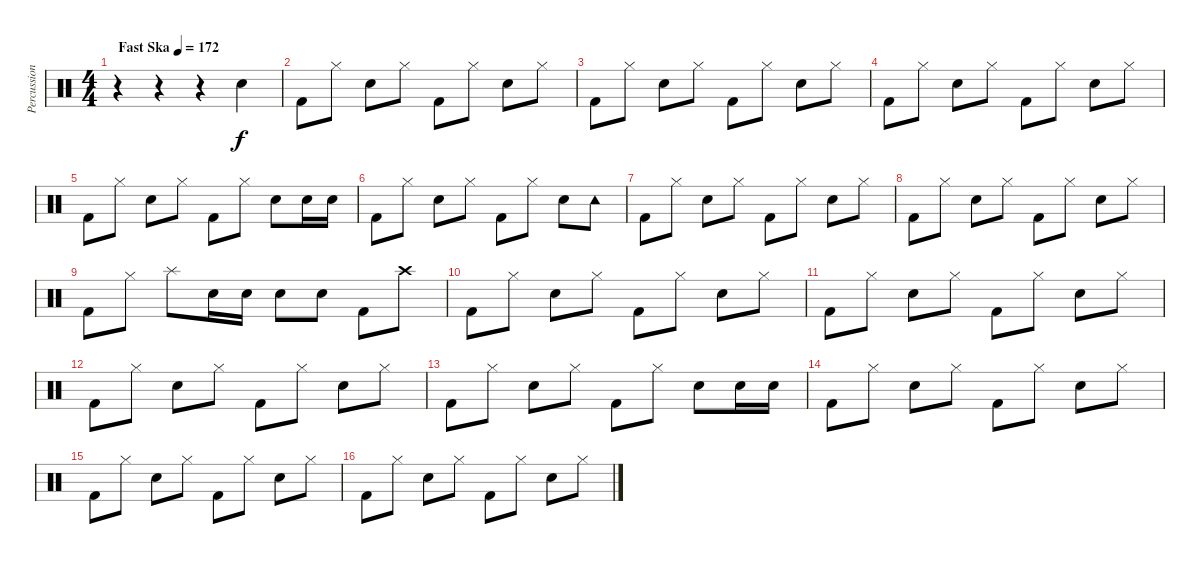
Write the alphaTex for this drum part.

\track ("Percussion" "Percussion") {instrument percussion}
\staff {score}
\articulation defaults
\ts (4 4)
\tempo (172 "Fast Ska")
\clef neutral
\ks c
r.4{dy f} r.4 r.4 "Snare (hit) 2".4 |
"Kick (hit) 2".8 "Hi-Hat (closed)".8 "Snare (hit) 2".8 "Hi-Hat (closed)".8 "Kick (hit) 2".8 "Hi-Hat (closed)".8 "Snare (hit) 2".8 "Hi-Hat (closed)".8 |
"Kick (hit) 2".8 "Hi-Hat (closed)".8 "Snare (hit) 2".8 "Hi-Hat (closed)".8 "Kick (hit) 2".8 "Hi-Hat (closed)".8 "Snare (hit) 2".8 "Hi-Hat (closed)".8 |
"Kick (hit) 2".8 "Hi-Hat (closed)".8 "Snare (hit) 2".8 "Hi-Hat (closed)".8 "Kick (hit) 2".8 "Hi-Hat (closed)".8 "Snare (hit) 2".8 "Hi-Hat (closed)".8 |
"Kick (hit) 2".8 "Hi-Hat (closed)".8 "Snare (hit) 2".8 "Hi-Hat (closed)".8 "Kick (hit) 2".8 "Hi-Hat (closed)".8 "Snare (hit) 2".8 "Snare (hit) 2".16 "Snare (hit) 2".16 |
"Kick (hit) 2".8 "Hi-Hat (closed)".8 "Snare (hit) 2".8 "Hi-Hat (closed)".8 "Kick (hit) 2".8 "Hi-Hat (closed)".8 "Snare (hit) 2".8 "Tambourine (hit)".8 |
"Kick (hit) 2".8 "Hi-Hat (closed)".8 "Snare (hit) 2".8 "Hi-Hat (closed)".8 "Kick (hit) 2".8 "Hi-Hat (closed)".8 "Snare (hit) 2".8 "Hi-Hat (closed)".8 |
"Kick (hit) 2".8 "Hi-Hat (closed)".8 "Snare (hit) 2".8 "Hi-Hat (closed)".8 "Kick (hit) 2".8 "Hi-Hat (closed)".8 "Snare (hit) 2".8 "Hi-Hat (closed)".8 |
"Kick (hit) 2".8 "Hi-Hat (closed)".8 "Splash (hit)".8 "Snare (hit) 2".16 "Snare (hit) 2".16 "Snare (hit) 2".8 "Snare (hit) 2".8 "Kick (hit) 2".8 "Crash high (hit)".8 |
"Kick (hit) 2".8 "Hi-Hat (closed)".8 "Snare (hit) 2".8 "Hi-Hat (closed)".8 "Kick (hit) 2".8 "Hi-Hat (closed)".8 "Snare (hit) 2".8 "Hi-Hat (closed)".8 |
"Kick (hit) 2".8 "Hi-Hat (closed)".8 "Snare (hit) 2".8 "Hi-Hat (closed)".8 "Kick (hit) 2".8 "Hi-Hat (closed)".8 "Snare (hit) 2".8 "Hi-Hat (closed)".8 |
"Kick (hit) 2".8 "Hi-Hat (closed)".8 "Snare (hit) 2".8 "Hi-Hat (closed)".8 "Kick (hit) 2".8 "Hi-Hat (closed)".8 "Snare (hit) 2".8 "Hi-Hat (closed)".8 |
"Kick (hit) 2".8 "Hi-Hat (closed)".8 "Snare (hit) 2".8 "Hi-Hat (closed)".8 "Kick (hit) 2".8 "Hi-Hat (closed)".8 "Snare (hit) 2".8 "Snare (hit) 2".16 "Snare (hit) 2".16 |
"Kick (hit) 2".8 "Hi-Hat (closed)".8 "Snare (hit) 2".8 "Hi-Hat (closed)".8 "Kick (hit) 2".8 "Hi-Hat (closed)".8 "Snare (hit) 2".8 "Hi-Hat (closed)".8 |
"Kick (hit) 2".8 "Hi-Hat (closed)".8 "Snare (hit) 2".8 "Hi-Hat (closed)".8 "Kick (hit) 2".8 "Hi-Hat (closed)".8 "Snare (hit) 2".8 "Hi-Hat (closed)".8 |
"Kick (hit) 2".8 "Hi-Hat (closed)".8 "Snare (hit) 2".8 "Hi-Hat (closed)".8 "Kick (hit) 2".8 "Hi-Hat (closed)".8 "Snare (hit) 2".8 "Hi-Hat (closed)".8
